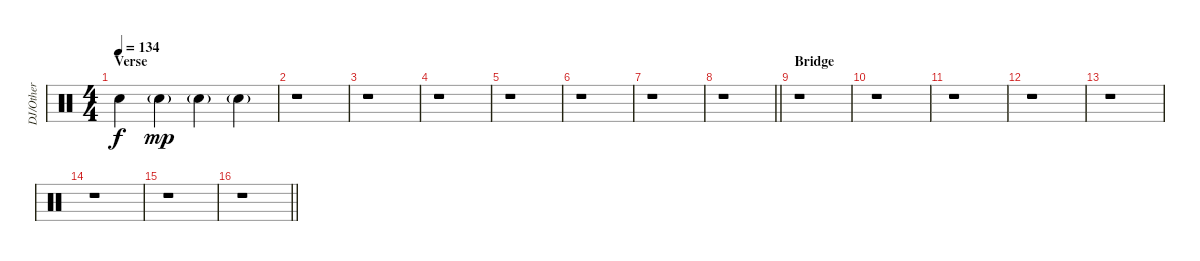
\track ("DJ/Other" "DJ/Other") {instrument percussion}
\staff {score}
\articulation defaults
\ts (4 4)
\section ("" "Verse")
\tempo 134
\clef neutral
\ks c "Electric Snare (hit)".4{dy f volume 0} "Electric Snare (hit)"{g}.4{dy mp} "Electric Snare (hit)"{g}.4 "Electric Snare (hit)"{g}.4
|
r.1 |
r.1 |
r.1 |
r.1 |
r.1 |
r.1 |
\barLineRight lightlight
r.1 |
\section ("" "Bridge")
r.1 |
r.1 |
r.1 |
r.1 |
r.1 |
r.1 |
r.1 |
\barLineRight lightlight
r.1
